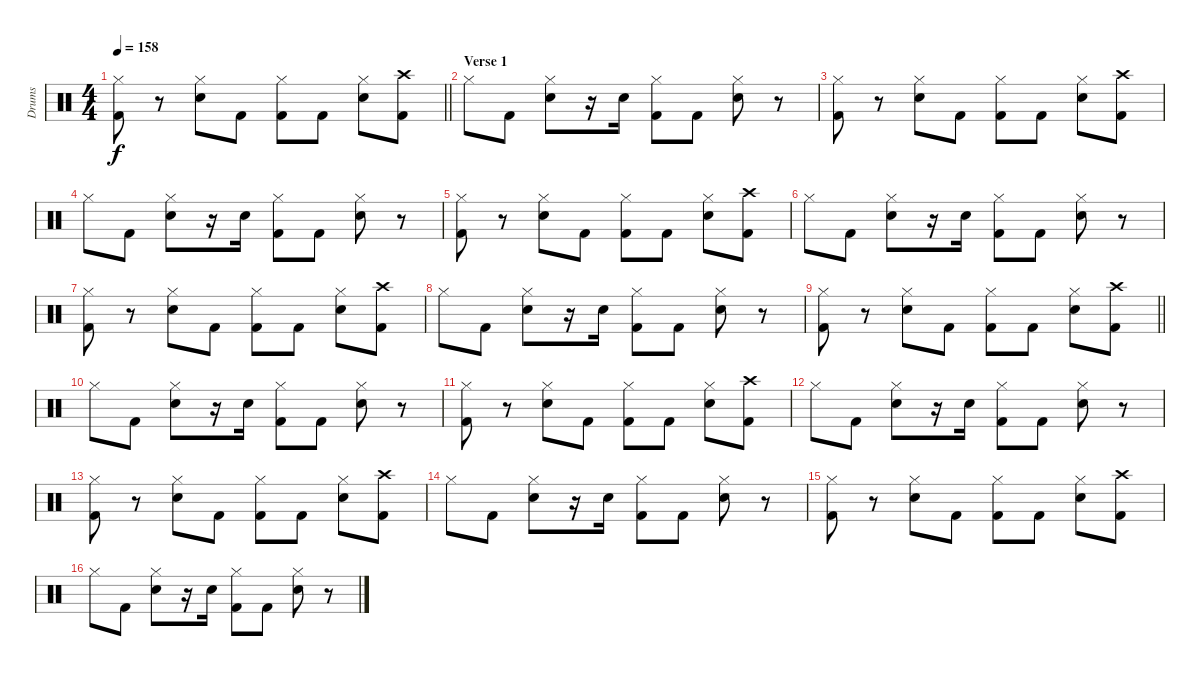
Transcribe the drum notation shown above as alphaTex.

\track ("Drums" "Drums") {instrument percussion}
\staff {score}
\articulation defaults
\ts (4 4)
\tempo 158
\clef neutral
\barLineRight lightlight
\ks c
("Hi-Hat (closed)" "Kick (hit) 2").8{dy f} r.8 ("Hi-Hat (closed)" "Snare (hit) 2").8 "Kick (hit) 2".8 ("Hi-Hat (closed)" "Kick (hit) 2").8 "Kick (hit) 2".8 ("Hi-Hat (closed)" "Snare (hit) 2").8 ("Crash high (hit)" "Kick (hit) 2").8 |
\section ("" "Verse 1")
"Hi-Hat (closed)".8 "Kick (hit) 2".8 ("Hi-Hat (closed)" "Snare (hit) 2").8 r.16 "Snare (hit) 2".16 ("Hi-Hat (closed)" "Kick (hit) 2").8 "Kick (hit) 2".8 ("Hi-Hat (closed)" "Snare (hit) 2").8 r.8 |
("Hi-Hat (closed)" "Kick (hit) 2").8 r.8 ("Hi-Hat (closed)" "Snare (hit) 2").8 "Kick (hit) 2".8 ("Hi-Hat (closed)" "Kick (hit) 2").8 "Kick (hit) 2".8 ("Hi-Hat (closed)" "Snare (hit) 2").8 ("Crash high (hit)" "Kick (hit) 2").8 |
"Hi-Hat (closed)".8 "Kick (hit) 2".8 ("Hi-Hat (closed)" "Snare (hit) 2").8 r.16 "Snare (hit) 2".16 ("Hi-Hat (closed)" "Kick (hit) 2").8 "Kick (hit) 2".8 ("Hi-Hat (closed)" "Snare (hit) 2").8 r.8 |
("Hi-Hat (closed)" "Kick (hit) 2").8 r.8 ("Hi-Hat (closed)" "Snare (hit) 2").8 "Kick (hit) 2".8 ("Hi-Hat (closed)" "Kick (hit) 2").8 "Kick (hit) 2".8 ("Hi-Hat (closed)" "Snare (hit) 2").8 ("Crash high (hit)" "Kick (hit) 2").8 |
"Hi-Hat (closed)".8 "Kick (hit) 2".8 ("Hi-Hat (closed)" "Snare (hit) 2").8 r.16 "Snare (hit) 2".16 ("Hi-Hat (closed)" "Kick (hit) 2").8 "Kick (hit) 2".8 ("Hi-Hat (closed)" "Snare (hit) 2").8 r.8 |
("Hi-Hat (closed)" "Kick (hit) 2").8 r.8 ("Hi-Hat (closed)" "Snare (hit) 2").8 "Kick (hit) 2".8 ("Hi-Hat (closed)" "Kick (hit) 2").8 "Kick (hit) 2".8 ("Hi-Hat (closed)" "Snare (hit) 2").8 ("Crash high (hit)" "Kick (hit) 2").8 |
"Hi-Hat (closed)".8 "Kick (hit) 2".8 ("Hi-Hat (closed)" "Snare (hit) 2").8 r.16 "Snare (hit) 2".16 ("Hi-Hat (closed)" "Kick (hit) 2").8 "Kick (hit) 2".8 ("Hi-Hat (closed)" "Snare (hit) 2").8 r.8 |
\barLineRight lightlight
("Hi-Hat (closed)" "Kick (hit) 2").8 r.8 ("Hi-Hat (closed)" "Snare (hit) 2").8 "Kick (hit) 2".8 ("Hi-Hat (closed)" "Kick (hit) 2").8 "Kick (hit) 2".8 ("Hi-Hat (closed)" "Snare (hit) 2").8 ("Crash high (hit)" "Kick (hit) 2").8 |
"Hi-Hat (closed)".8 "Kick (hit) 2".8 ("Hi-Hat (closed)" "Snare (hit) 2").8 r.16 "Snare (hit) 2".16 ("Hi-Hat (closed)" "Kick (hit) 2").8 "Kick (hit) 2".8 ("Hi-Hat (closed)" "Snare (hit) 2").8 r.8 |
("Hi-Hat (closed)" "Kick (hit) 2").8 r.8 ("Hi-Hat (closed)" "Snare (hit) 2").8 "Kick (hit) 2".8 ("Hi-Hat (closed)" "Kick (hit) 2").8 "Kick (hit) 2".8 ("Hi-Hat (closed)" "Snare (hit) 2").8 ("Crash high (hit)" "Kick (hit) 2").8 |
"Hi-Hat (closed)".8 "Kick (hit) 2".8 ("Hi-Hat (closed)" "Snare (hit) 2").8 r.16 "Snare (hit) 2".16 ("Hi-Hat (closed)" "Kick (hit) 2").8 "Kick (hit) 2".8 ("Hi-Hat (closed)" "Snare (hit) 2").8 r.8 |
("Hi-Hat (closed)" "Kick (hit) 2").8 r.8 ("Hi-Hat (closed)" "Snare (hit) 2").8 "Kick (hit) 2".8 ("Hi-Hat (closed)" "Kick (hit) 2").8 "Kick (hit) 2".8 ("Hi-Hat (closed)" "Snare (hit) 2").8 ("Crash high (hit)" "Kick (hit) 2").8 |
"Hi-Hat (closed)".8 "Kick (hit) 2".8 ("Hi-Hat (closed)" "Snare (hit) 2").8 r.16 "Snare (hit) 2".16 ("Hi-Hat (closed)" "Kick (hit) 2").8 "Kick (hit) 2".8 ("Hi-Hat (closed)" "Snare (hit) 2").8 r.8 |
("Hi-Hat (closed)" "Kick (hit) 2").8 r.8 ("Hi-Hat (closed)" "Snare (hit) 2").8 "Kick (hit) 2".8 ("Hi-Hat (closed)" "Kick (hit) 2").8 "Kick (hit) 2".8 ("Hi-Hat (closed)" "Snare (hit) 2").8 ("Crash high (hit)" "Kick (hit) 2").8 |
"Hi-Hat (closed)".8 "Kick (hit) 2".8 ("Hi-Hat (closed)" "Snare (hit) 2").8 r.16 "Snare (hit) 2".16 ("Hi-Hat (closed)" "Kick (hit) 2").8 "Kick (hit) 2".8 ("Hi-Hat (closed)" "Snare (hit) 2").8 r.8
